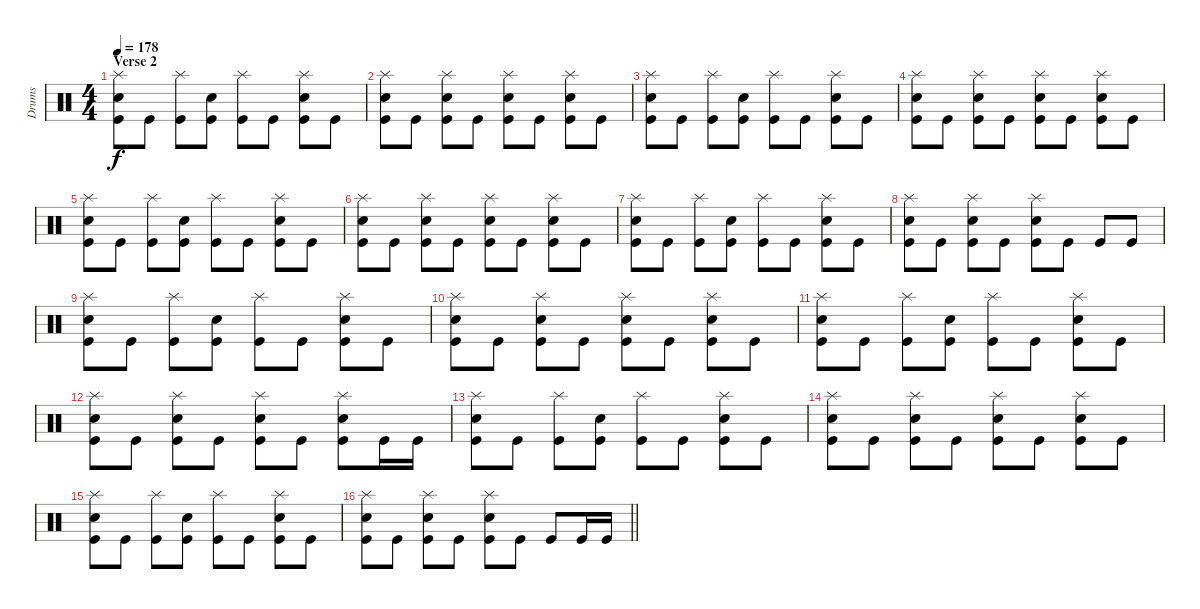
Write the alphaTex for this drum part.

\track ("Drums" "Drums") {instrument percussion}
\staff {score}
\articulation defaults
\ts (4 4)
\section ("" "Verse 2")
\tempo 178
\clef neutral
\ks c
("Splash (hit)" "Snare (hit) 2" "Kick (hit)").8{dy f} "Kick (hit)".8 ("Splash (hit)" "Kick (hit)").8 ("Snare (hit) 2" "Kick (hit)").8 ("Splash (hit)" "Kick (hit)").8 "Kick (hit)".8 ("Splash (hit)" "Snare (hit) 2" "Kick (hit)").8 "Kick (hit)".8 |
("Splash (hit)" "Snare (hit) 2" "Kick (hit)").8 "Kick (hit)".8 ("Splash (hit)" "Snare (hit) 2" "Kick (hit)").8 "Kick (hit)".8 ("Splash (hit)" "Snare (hit) 2" "Kick (hit)").8 "Kick (hit)".8 ("Splash (hit)" "Snare (hit) 2" "Kick (hit)").8 "Kick (hit)".8 |
("Splash (hit)" "Snare (hit) 2" "Kick (hit)").8 "Kick (hit)".8 ("Splash (hit)" "Kick (hit)").8 ("Snare (hit) 2" "Kick (hit)").8 ("Splash (hit)" "Kick (hit)").8 "Kick (hit)".8 ("Splash (hit)" "Snare (hit) 2" "Kick (hit)").8 "Kick (hit)".8 |
("Splash (hit)" "Snare (hit) 2" "Kick (hit)").8 "Kick (hit)".8 ("Splash (hit)" "Snare (hit) 2" "Kick (hit)").8 "Kick (hit)".8 ("Splash (hit)" "Snare (hit) 2" "Kick (hit)").8 "Kick (hit)".8 ("Splash (hit)" "Snare (hit) 2" "Kick (hit)").8 "Kick (hit)".8 |
("Splash (hit)" "Snare (hit) 2" "Kick (hit)").8 "Kick (hit)".8 ("Splash (hit)" "Kick (hit)").8 ("Snare (hit) 2" "Kick (hit)").8 ("Splash (hit)" "Kick (hit)").8 "Kick (hit)".8 ("Splash (hit)" "Snare (hit) 2" "Kick (hit)").8 "Kick (hit)".8 |
("Splash (hit)" "Snare (hit) 2" "Kick (hit)").8 "Kick (hit)".8 ("Splash (hit)" "Snare (hit) 2" "Kick (hit)").8 "Kick (hit)".8 ("Splash (hit)" "Snare (hit) 2" "Kick (hit)").8 "Kick (hit)".8 ("Splash (hit)" "Snare (hit) 2" "Kick (hit)").8 "Kick (hit)".8 |
("Splash (hit)" "Snare (hit) 2" "Kick (hit)").8 "Kick (hit)".8 ("Splash (hit)" "Kick (hit)").8 ("Snare (hit) 2" "Kick (hit)").8 ("Splash (hit)" "Kick (hit)").8 "Kick (hit)".8 ("Splash (hit)" "Snare (hit) 2" "Kick (hit)").8 "Kick (hit)".8 |
("Splash (hit)" "Snare (hit) 2" "Kick (hit)").8 "Kick (hit)".8 ("Splash (hit)" "Snare (hit) 2" "Kick (hit)").8 "Kick (hit)".8 ("Splash (hit)" "Snare (hit) 2" "Kick (hit)").8 "Kick (hit)".8 "Kick (hit)".8 "Kick (hit)".8 |
("Splash (hit)" "Snare (hit) 2" "Kick (hit)").8 "Kick (hit)".8 ("Splash (hit)" "Kick (hit)").8 ("Snare (hit) 2" "Kick (hit)").8 ("Splash (hit)" "Kick (hit)").8 "Kick (hit)".8 ("Splash (hit)" "Snare (hit) 2" "Kick (hit)").8 "Kick (hit)".8 |
("Splash (hit)" "Snare (hit) 2" "Kick (hit)").8 "Kick (hit)".8 ("Splash (hit)" "Snare (hit) 2" "Kick (hit)").8 "Kick (hit)".8 ("Splash (hit)" "Snare (hit) 2" "Kick (hit)").8 "Kick (hit)".8 ("Splash (hit)" "Snare (hit) 2" "Kick (hit)").8 "Kick (hit)".8 |
("Splash (hit)" "Snare (hit) 2" "Kick (hit)").8 "Kick (hit)".8 ("Splash (hit)" "Kick (hit)").8 ("Snare (hit) 2" "Kick (hit)").8 ("Splash (hit)" "Kick (hit)").8 "Kick (hit)".8 ("Splash (hit)" "Snare (hit) 2" "Kick (hit)").8 "Kick (hit)".8 |
("Splash (hit)" "Snare (hit) 2" "Kick (hit)").8 "Kick (hit)".8 ("Splash (hit)" "Snare (hit) 2" "Kick (hit)").8 "Kick (hit)".8 ("Splash (hit)" "Snare (hit) 2" "Kick (hit)").8 "Kick (hit)".8 ("Splash (hit)" "Snare (hit) 2" "Kick (hit)").8 "Kick (hit)".16 "Kick (hit)".16 |
("Splash (hit)" "Snare (hit) 2" "Kick (hit)").8 "Kick (hit)".8 ("Splash (hit)" "Kick (hit)").8 ("Snare (hit) 2" "Kick (hit)").8 ("Splash (hit)" "Kick (hit)").8 "Kick (hit)".8 ("Splash (hit)" "Snare (hit) 2" "Kick (hit)").8 "Kick (hit)".8 |
("Splash (hit)" "Snare (hit) 2" "Kick (hit)").8 "Kick (hit)".8 ("Splash (hit)" "Snare (hit) 2" "Kick (hit)").8 "Kick (hit)".8 ("Splash (hit)" "Snare (hit) 2" "Kick (hit)").8 "Kick (hit)".8 ("Splash (hit)" "Snare (hit) 2" "Kick (hit)").8 "Kick (hit)".8 |
("Splash (hit)" "Snare (hit) 2" "Kick (hit)").8 "Kick (hit)".8 ("Splash (hit)" "Kick (hit)").8 ("Snare (hit) 2" "Kick (hit)").8 ("Splash (hit)" "Kick (hit)").8 "Kick (hit)".8 ("Splash (hit)" "Snare (hit) 2" "Kick (hit)").8 "Kick (hit)".8 |
\barLineRight lightlight
("Splash (hit)" "Snare (hit) 2" "Kick (hit)").8 "Kick (hit)".8 ("Splash (hit)" "Snare (hit) 2" "Kick (hit)").8 "Kick (hit)".8 ("Splash (hit)" "Snare (hit) 2" "Kick (hit)").8 "Kick (hit)".8 "Kick (hit)".8 "Kick (hit)".16 "Kick (hit)".16
